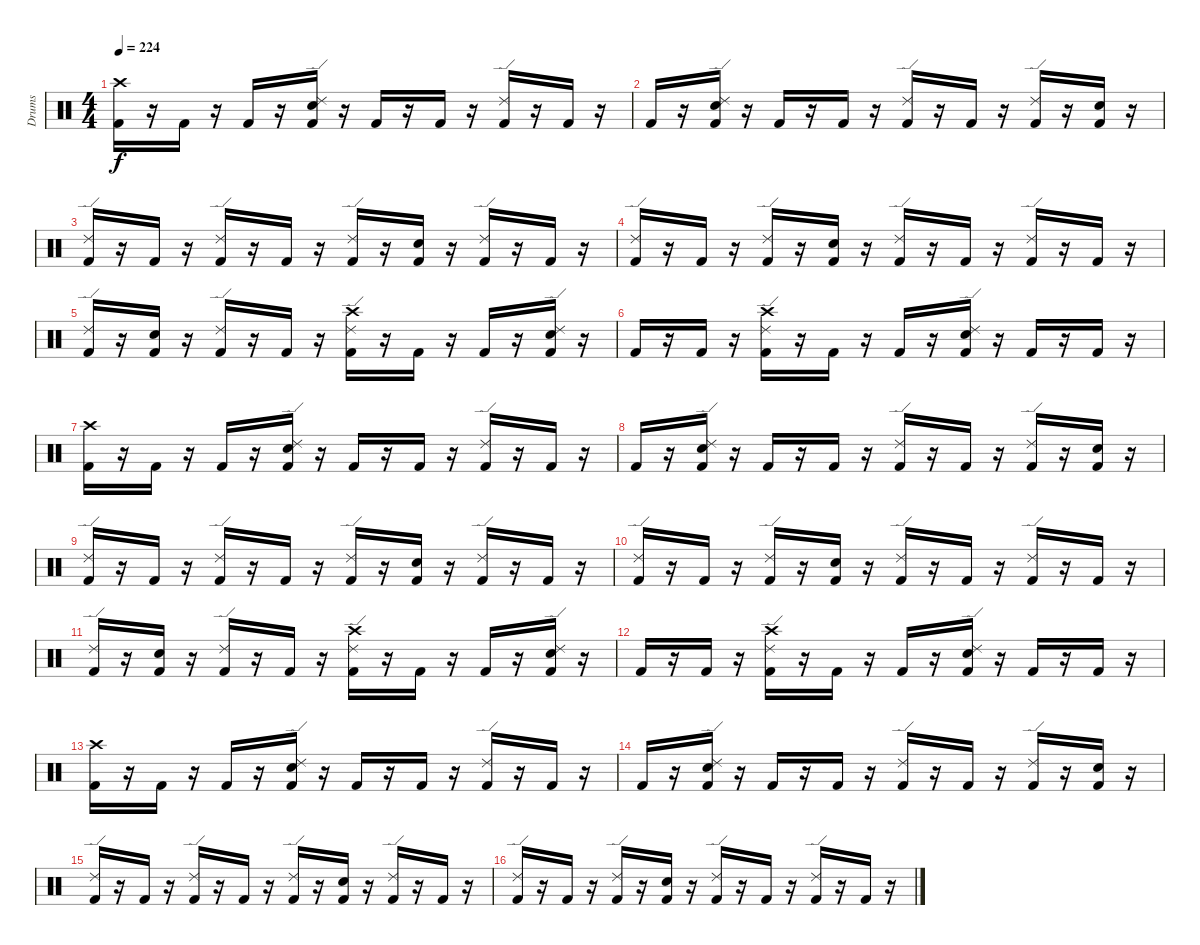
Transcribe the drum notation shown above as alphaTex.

\track ("Drums" "Drums") {instrument percussion}
\staff {score}
\articulation defaults
\ts (4 4)
\tempo 224
\clef neutral
\ks c
("Crash high (hit)" "Kick (hit) 2").16{dy f} r.16 "Kick (hit) 2".16 r.16 "Kick (hit) 2".16 r.16 ("Snare (hit) 2" "Ride (edge) 2" "Kick (hit) 2").16 r.16 "Kick (hit) 2".16 r.16 "Kick (hit) 2".16 r.16 ("Ride (edge) 2" "Kick (hit) 2").16 r.16 "Kick (hit) 2".16 r.16 |
"Kick (hit) 2".16 r.16 ("Ride (edge) 2" "Kick (hit) 2" "Snare (hit) 2").16 r.16 "Kick (hit) 2".16 r.16 "Kick (hit) 2".16 r.16 ("Ride (edge) 2" "Kick (hit) 2").16 r.16 "Kick (hit) 2".16 r.16 ("Ride (edge) 2" "Kick (hit) 2").16 r.16 ("Snare (hit) 2" "Kick (hit) 2").16 r.16 |
("Ride (edge) 2" "Kick (hit) 2").16 r.16 "Kick (hit) 2".16 r.16 ("Ride (edge) 2" "Kick (hit) 2").16 r.16 "Kick (hit) 2".16 r.16 ("Ride (edge) 2" "Kick (hit) 2").16 r.16 ("Kick (hit) 2" "Snare (hit) 2").16 r.16 ("Ride (edge) 2" "Kick (hit) 2").16 r.16 "Kick (hit) 2".16 r.16 |
("Ride (edge) 2" "Kick (hit) 2").16 r.16 "Kick (hit) 2".16 r.16 ("Ride (edge) 2" "Kick (hit) 2").16 r.16 ("Snare (hit) 2" "Kick (hit) 2").16 r.16 ("Ride (edge) 2" "Kick (hit) 2").16 r.16 "Kick (hit) 2".16 r.16 ("Ride (edge) 2" "Kick (hit) 2").16 r.16 "Kick (hit) 2".16 r.16 |
("Ride (edge) 2" "Kick (hit) 2").16 r.16 ("Kick (hit) 2" "Snare (hit) 2").16 r.16 ("Ride (edge) 2" "Kick (hit) 2").16 r.16 "Kick (hit) 2".16 r.16 ("Ride (edge) 2" "Crash high (hit)" "Kick (hit) 2").16 r.16 "Kick (hit) 2".16 r.16 "Kick (hit) 2".16 r.16 ("Ride (edge) 2" "Snare (hit) 2" "Kick (hit) 2").16 r.16 |
"Kick (hit) 2".16 r.16 "Kick (hit) 2".16 r.16 ("Ride (edge) 2" "Crash high (hit)" "Kick (hit) 2").16 r.16 "Kick (hit) 2".16 r.16 "Kick (hit) 2".16 r.16 ("Ride (edge) 2" "Snare (hit) 2" "Kick (hit) 2").16 r.16 "Kick (hit) 2".16 r.16 "Kick (hit) 2".16 r.16 |
("Crash high (hit)" "Kick (hit) 2").16 r.16 "Kick (hit) 2".16 r.16 "Kick (hit) 2".16 r.16 ("Snare (hit) 2" "Ride (edge) 2" "Kick (hit) 2").16 r.16 "Kick (hit) 2".16 r.16 "Kick (hit) 2".16 r.16 ("Ride (edge) 2" "Kick (hit) 2").16 r.16 "Kick (hit) 2".16 r.16 |
"Kick (hit) 2".16 r.16 ("Ride (edge) 2" "Kick (hit) 2" "Snare (hit) 2").16 r.16 "Kick (hit) 2".16 r.16 "Kick (hit) 2".16 r.16 ("Ride (edge) 2" "Kick (hit) 2").16 r.16 "Kick (hit) 2".16 r.16 ("Ride (edge) 2" "Kick (hit) 2").16 r.16 ("Snare (hit) 2" "Kick (hit) 2").16 r.16 |
("Ride (edge) 2" "Kick (hit) 2").16 r.16 "Kick (hit) 2".16 r.16 ("Ride (edge) 2" "Kick (hit) 2").16 r.16 "Kick (hit) 2".16 r.16 ("Ride (edge) 2" "Kick (hit) 2").16 r.16 ("Kick (hit) 2" "Snare (hit) 2").16 r.16 ("Ride (edge) 2" "Kick (hit) 2").16 r.16 "Kick (hit) 2".16 r.16 |
("Ride (edge) 2" "Kick (hit) 2").16 r.16 "Kick (hit) 2".16 r.16 ("Ride (edge) 2" "Kick (hit) 2").16 r.16 ("Snare (hit) 2" "Kick (hit) 2").16 r.16 ("Ride (edge) 2" "Kick (hit) 2").16 r.16 "Kick (hit) 2".16 r.16 ("Ride (edge) 2" "Kick (hit) 2").16 r.16 "Kick (hit) 2".16 r.16 |
("Ride (edge) 2" "Kick (hit) 2").16 r.16 ("Kick (hit) 2" "Snare (hit) 2").16 r.16 ("Ride (edge) 2" "Kick (hit) 2").16 r.16 "Kick (hit) 2".16 r.16 ("Ride (edge) 2" "Crash high (hit)" "Kick (hit) 2").16 r.16 "Kick (hit) 2".16 r.16 "Kick (hit) 2".16 r.16 ("Ride (edge) 2" "Snare (hit) 2" "Kick (hit) 2").16 r.16 |
"Kick (hit) 2".16 r.16 "Kick (hit) 2".16 r.16 ("Ride (edge) 2" "Crash high (hit)" "Kick (hit) 2").16 r.16 "Kick (hit) 2".16 r.16 "Kick (hit) 2".16 r.16 ("Ride (edge) 2" "Snare (hit) 2" "Kick (hit) 2").16 r.16 "Kick (hit) 2".16 r.16 "Kick (hit) 2".16 r.16 |
("Crash high (hit)" "Kick (hit) 2").16 r.16 "Kick (hit) 2".16 r.16 "Kick (hit) 2".16 r.16 ("Snare (hit) 2" "Ride (edge) 2" "Kick (hit) 2").16 r.16 "Kick (hit) 2".16 r.16 "Kick (hit) 2".16 r.16 ("Ride (edge) 2" "Kick (hit) 2").16 r.16 "Kick (hit) 2".16 r.16 |
"Kick (hit) 2".16 r.16 ("Ride (edge) 2" "Kick (hit) 2" "Snare (hit) 2").16 r.16 "Kick (hit) 2".16 r.16 "Kick (hit) 2".16 r.16 ("Ride (edge) 2" "Kick (hit) 2").16 r.16 "Kick (hit) 2".16 r.16 ("Ride (edge) 2" "Kick (hit) 2").16 r.16 ("Snare (hit) 2" "Kick (hit) 2").16 r.16 |
("Ride (edge) 2" "Kick (hit) 2").16 r.16 "Kick (hit) 2".16 r.16 ("Ride (edge) 2" "Kick (hit) 2").16 r.16 "Kick (hit) 2".16 r.16 ("Ride (edge) 2" "Kick (hit) 2").16 r.16 ("Kick (hit) 2" "Snare (hit) 2").16 r.16 ("Ride (edge) 2" "Kick (hit) 2").16 r.16 "Kick (hit) 2".16 r.16 |
("Ride (edge) 2" "Kick (hit) 2").16 r.16 "Kick (hit) 2".16 r.16 ("Ride (edge) 2" "Kick (hit) 2").16 r.16 ("Snare (hit) 2" "Kick (hit) 2").16 r.16 ("Ride (edge) 2" "Kick (hit) 2").16 r.16 "Kick (hit) 2".16 r.16 ("Ride (edge) 2" "Kick (hit) 2").16 r.16 "Kick (hit) 2".16 r.16
